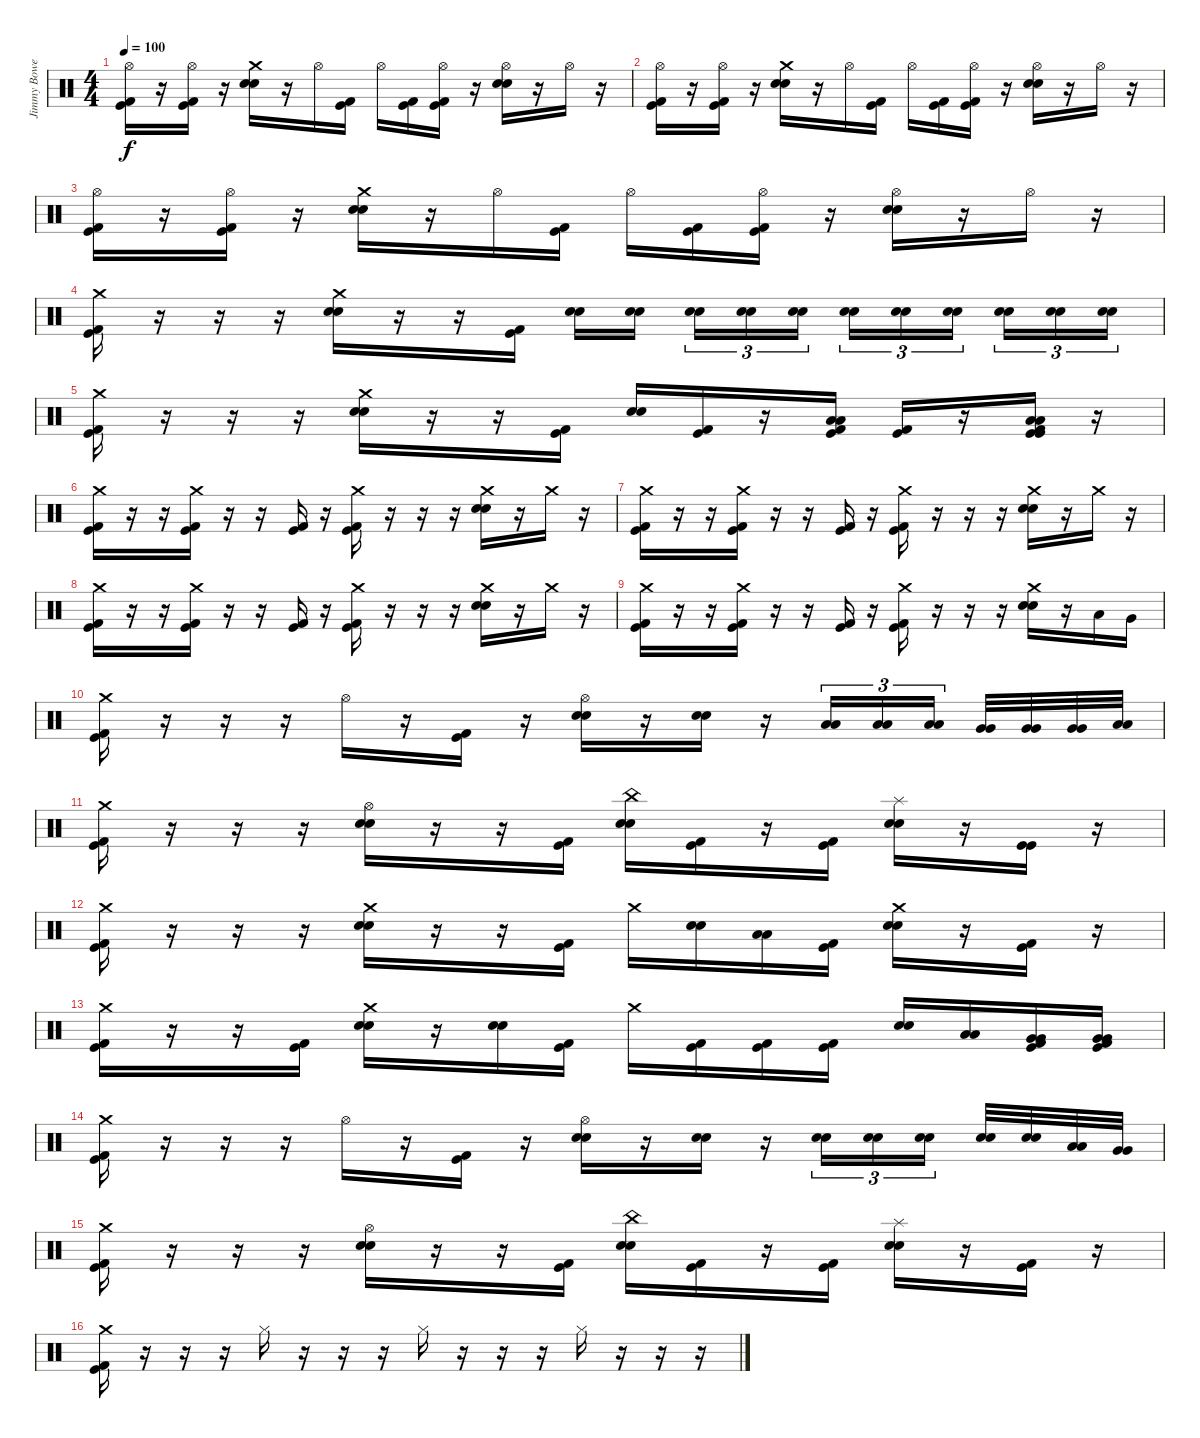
\track ("Jimmy Bower" "Jimmy Bowe") {instrument percussion}
\staff {score}
\articulation defaults
\ts (4 4)
\tempo 100
\clef neutral
\ks c
("Hi-Hat (open)" "Kick (hit) 2" "Kick (hit)").16{dy f} r.16 ("Hi-Hat (open)" "Kick (hit)" "Kick (hit) 2").16 r.16 ("Crash medium (hit)" "Electric Snare (hit)" "Electric Snare (hit)").16 r.16 "Hi-Hat (open)".16 ("Kick (hit) 2" "Kick (hit)").16 "Hi-Hat (open)".16 ("Kick (hit)" "Kick (hit) 2").16 ("Hi-Hat (open)" "Kick (hit)" "Kick (hit) 2").16 r.16 ("Hi-Hat (open)" "Electric Snare (hit)" "Electric Snare (hit)").16 r.16 "Hi-Hat (open)".16 r.16 |
("Hi-Hat (open)" "Kick (hit) 2" "Kick (hit)").16 r.16 ("Hi-Hat (open)" "Kick (hit)" "Kick (hit) 2").16 r.16 ("Crash medium (hit)" "Electric Snare (hit)" "Electric Snare (hit)").16 r.16 "Hi-Hat (open)".16 ("Kick (hit) 2" "Kick (hit)").16 "Hi-Hat (open)".16 ("Kick (hit)" "Kick (hit) 2").16 ("Hi-Hat (open)" "Kick (hit)" "Kick (hit) 2").16 r.16 ("Hi-Hat (open)" "Electric Snare (hit)" "Electric Snare (hit)").16 r.16 "Hi-Hat (open)".16 r.16 |
("Hi-Hat (open)" "Kick (hit) 2" "Kick (hit)").16 r.16 ("Hi-Hat (open)" "Kick (hit)" "Kick (hit) 2").16 r.16 ("Crash medium (hit)" "Electric Snare (hit)" "Electric Snare (hit)").16 r.16 "Hi-Hat (open)".16 ("Kick (hit) 2" "Kick (hit)").16 "Hi-Hat (open)".16 ("Kick (hit)" "Kick (hit) 2").16 ("Hi-Hat (open)" "Kick (hit)" "Kick (hit) 2").16 r.16 ("Hi-Hat (open)" "Electric Snare (hit)" "Electric Snare (hit)").16 r.16 "Hi-Hat (open)".16 r.16 |
("Crash medium (hit)" "Kick (hit) 2" "Kick (hit)").16 r.16 r.16 r.16 ("Crash medium (hit)" "Electric Snare (hit)" "Electric Snare (hit)").16 r.16 r.16 ("Kick (hit) 2" "Kick (hit)").16 ("Electric Snare (hit)" "Electric Snare (hit)").16 ("Electric Snare (hit)" "Electric Snare (hit)").16{beam splitsecondary} ("Electric Snare (hit)" "Electric Snare (hit)").16{tu (3 2)} ("Electric Snare (hit)" "Electric Snare (hit)").16{tu (3 2)} ("Electric Snare (hit)" "Electric Snare (hit)").16{tu (3 2)} ("Electric Snare (hit)" "Electric Snare (hit)").16{tu (3 2)} ("Electric Snare (hit)" "Electric Snare (hit)").16{tu (3 2)} ("Electric Snare (hit)" "Electric Snare (hit)").16{tu (3 2) beam splitsecondary} ("Electric Snare (hit)" "Electric Snare (hit)").16{tu (3 2)} ("Electric Snare (hit)" "Electric Snare (hit)").16{tu (3 2)} ("Electric Snare (hit)" "Electric Snare (hit)").16{tu (3 2)} |
("Crash medium (hit)" "Kick (hit)" "Kick (hit) 2").16 r.16 r.16 r.16 ("Crash medium (hit)" "Electric Snare (hit)" "Electric Snare (hit)").16 r.16 r.16 ("Kick (hit) 2" "Kick (hit)").16 ("Electric Snare (hit)" "Electric Snare (hit)").16 ("Kick (hit)" "Kick (hit) 2").16 r.16 ("Low Tom (hit)" "Low Tom (hit)" "Kick (hit)" "Kick (hit) 2").16 ("Kick (hit)" "Kick (hit) 2").16 r.16 ("Low Tom (hit)" "Low Tom (hit)" "Kick (hit)" "Kick (hit)" "Kick (hit) 2").16 r.16 |
("Crash medium (hit)" "Kick (hit) 2" "Kick (hit)").16 r.16 r.16 ("Crash medium (hit)" "Kick (hit)" "Kick (hit) 2").16 r.16 r.16 ("Kick (hit) 2" "Kick (hit)").16 r.16 ("Crash medium (hit)" "Kick (hit)" "Kick (hit) 2").16 r.16 r.16 r.16 ("Crash medium (hit)" "Electric Snare (hit)" "Electric Snare (hit)").16 r.16 "Crash medium (hit)".16 r.16 |
("Crash medium (hit)" "Kick (hit) 2" "Kick (hit)").16 r.16 r.16 ("Crash medium (hit)" "Kick (hit)" "Kick (hit) 2").16 r.16 r.16 ("Kick (hit) 2" "Kick (hit)").16 r.16 ("Crash medium (hit)" "Kick (hit)" "Kick (hit) 2").16 r.16 r.16 r.16 ("Crash medium (hit)" "Electric Snare (hit)" "Electric Snare (hit)").16 r.16 "Crash medium (hit)".16 r.16 |
("Crash medium (hit)" "Kick (hit) 2" "Kick (hit)").16 r.16 r.16 ("Crash medium (hit)" "Kick (hit)" "Kick (hit) 2").16 r.16 r.16 ("Kick (hit) 2" "Kick (hit)").16 r.16 ("Crash medium (hit)" "Kick (hit)" "Kick (hit) 2").16 r.16 r.16 r.16 ("Crash medium (hit)" "Electric Snare (hit)" "Electric Snare (hit)").16 r.16 "Crash medium (hit)".16 r.16 |
("Crash medium (hit)" "Kick (hit) 2" "Kick (hit)").16 r.16 r.16 ("Crash medium (hit)" "Kick (hit)" "Kick (hit) 2").16 r.16 r.16 ("Kick (hit) 2" "Kick (hit)").16 r.16 ("Crash medium (hit)" "Kick (hit)" "Kick (hit) 2").16 r.16 r.16 r.16 ("Crash medium (hit)" "Electric Snare (hit)" "Electric Snare (hit)").16 r.16 "Low Tom (hit)".16 "Very Low Tom (hit)".16 |
("Crash medium (hit)" "Kick (hit) 2" "Kick (hit)").16 r.16 r.16 r.16 "Hi-Hat (open)".16 r.16 ("Kick (hit) 2" "Kick (hit)").16 r.16 ("Hi-Hat (open)" "Electric Snare (hit)" "Electric Snare (hit)").16 r.16 ("Electric Snare (hit)" "Electric Snare (hit)").16 r.16 ("Low Tom (hit)" "Low Tom (hit)").16{tu (3 2)} ("Low Tom (hit)" "Low Tom (hit)").16{tu (3 2)} ("Low Tom (hit)" "Low Tom (hit)").16{tu (3 2) beam splitsecondary} ("Very Low Tom (hit)" "Very Low Tom (hit)").32 ("Very Low Tom (hit)" "Very Low Tom (hit)").32 ("Very Low Tom (hit)" "Very Low Tom (hit)").32 ("Low Floor Tom (hit)" "Low Floor Tom (hit)").32 |
("Crash medium (hit)" "Kick (hit) 2" "Kick (hit)").16 r.16 r.16 r.16 ("Hi-Hat (open)" "Electric Snare (hit)" "Electric Snare (hit)").16 r.16 r.16 ("Kick (hit) 2" "Kick (hit)").16 ("China (hit)" "Electric Snare (hit)" "Electric Snare (hit)").16 ("Kick (hit) 2" "Kick (hit)").16 r.16 ("Kick (hit) 2" "Kick (hit)").16 ("Splash (hit)" "Electric Snare (hit)" "Electric Snare (hit)").16 r.16 ("Kick (hit)" "Kick (hit)").16 r.16 |
("Crash medium (hit)" "Kick (hit) 2" "Kick (hit)").16 r.16 r.16 r.16 ("Crash medium (hit)" "Electric Snare (hit)" "Electric Snare (hit)").16 r.16 r.16 ("Kick (hit) 2" "Kick (hit)").16 "Crash medium (hit)".16 ("Electric Snare (hit)" "Electric Snare (hit)").16 ("Low Tom (hit)" "Low Tom (hit)").16 ("Kick (hit)" "Kick (hit) 2").16 ("Crash medium (hit)" "Electric Snare (hit)" "Electric Snare (hit)").16 r.16 ("Kick (hit) 2" "Kick (hit)").16 r.16 |
("Crash medium (hit)" "Kick (hit) 2" "Kick (hit)").16 r.16 r.16 ("Kick (hit) 2" "Kick (hit)").16 ("Crash medium (hit)" "Electric Snare (hit)" "Electric Snare (hit)").16 r.16 ("Electric Snare (hit)" "Electric Snare (hit)").16 ("Kick (hit) 2" "Kick (hit)").16 "Crash medium (hit)".16 ("Kick (hit) 2" "Kick (hit)").16 ("Kick (hit) 2" "Kick (hit)").16 ("Kick (hit) 2" "Kick (hit)").16 ("Electric Snare (hit)" "Electric Snare (hit)").16 ("Low Tom (hit)" "Low Tom (hit)").16 ("Very Low Tom (hit)" "Very Low Tom (hit)" "Kick (hit) 2" "Kick (hit)").16 ("Very Low Tom (hit)" "Very Low Tom (hit)" "Kick (hit) 2" "Kick (hit)").16 |
("Crash medium (hit)" "Kick (hit) 2" "Kick (hit)").16 r.16 r.16 r.16 "Hi-Hat (open)".16 r.16 ("Kick (hit) 2" "Kick (hit)").16 r.16 ("Hi-Hat (open)" "Electric Snare (hit)" "Electric Snare (hit)").16 r.16 ("Electric Snare (hit)" "Electric Snare (hit)").16 r.16 ("Electric Snare (hit)" "Electric Snare (hit)").16{tu (3 2)} ("Electric Snare (hit)" "Electric Snare (hit)").16{tu (3 2)} ("Electric Snare (hit)" "Electric Snare (hit)").16{tu (3 2) beam splitsecondary} ("Electric Snare (hit)" "Electric Snare (hit)").32 ("Electric Snare (hit)" "Electric Snare (hit)").32 ("Low Tom (hit)" "Low Tom (hit)").32 ("Very Low Tom (hit)" "Very Low Tom (hit)").32 |
("Crash medium (hit)" "Kick (hit)" "Kick (hit) 2").16 r.16 r.16 r.16 ("Hi-Hat (open)" "Electric Snare (hit)" "Electric Snare (hit)").16 r.16 r.16 ("Kick (hit) 2" "Kick (hit)").16 ("China (hit)" "Electric Snare (hit)" "Electric Snare (hit)").16 ("Kick (hit) 2" "Kick (hit)").16 r.16 ("Kick (hit) 2" "Kick (hit)").16 ("Splash (hit)" "Electric Snare (hit)" "Electric Snare (hit)").16 r.16 ("Kick (hit) 2" "Kick (hit)").16 r.16 |
("Crash medium (hit)" "Kick (hit) 2" "Kick (hit)").16 r.16 r.16 r.16 "Hi-Hat (closed)".16 r.16 r.16 r.16 "Hi-Hat (closed)".16 r.16 r.16 r.16 "Hi-Hat (closed)".16 r.16 r.16 r.16
